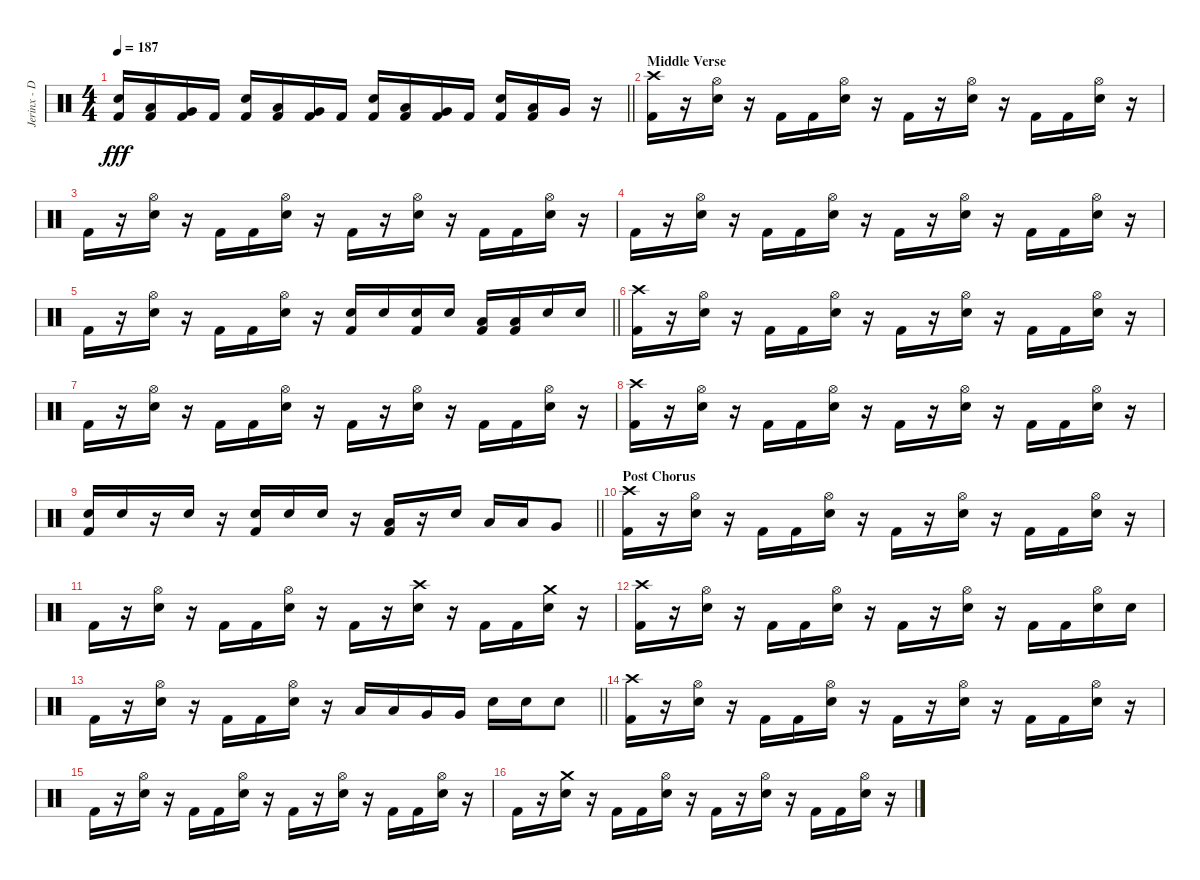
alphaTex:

\track ("Jerinx - Drum" "Jerinx - D") {instrument percussion}
\staff {score}
\articulation defaults
\ts (4 4)
\tempo 187
\clef neutral
\barLineRight lightlight
\ks c
("Snare (hit) 2" "Kick (hit) 2").16{dy fff} ("Kick (hit) 2" "Low Tom (hit)").16 ("Kick (hit) 2" "Very Low Tom (hit)").16 "Kick (hit) 2".16 ("Snare (hit) 2" "Kick (hit) 2").16 ("Kick (hit) 2" "Low Tom (hit)").16 ("Kick (hit) 2" "Very Low Tom (hit)").16 "Kick (hit) 2".16 ("Snare (hit) 2" "Kick (hit) 2").16 ("Kick (hit) 2" "Low Tom (hit)").16 ("Kick (hit) 2" "Very Low Tom (hit)").16 "Kick (hit) 2".16 ("Snare (hit) 2" "Kick (hit) 2").16 ("Kick (hit) 2" "Low Tom (hit)").16 "Very Low Tom (hit)".16 r.16 |
\section ("" "Middle Verse")
("Kick (hit) 2" "Crash high (hit)").16 r.16 ("Hi-Hat (open)" "Snare (hit) 2").16 r.16 "Kick (hit) 2".16 "Kick (hit) 2".16 ("Hi-Hat (open)" "Snare (hit) 2").16 r.16 "Kick (hit) 2".16 r.16 ("Hi-Hat (open)" "Snare (hit) 2").16 r.16 "Kick (hit) 2".16 "Kick (hit) 2".16 ("Hi-Hat (open)" "Snare (hit) 2").16 r.16 |
"Kick (hit) 2".16 r.16 ("Hi-Hat (open)" "Snare (hit) 2").16 r.16 "Kick (hit) 2".16 "Kick (hit) 2".16 ("Hi-Hat (open)" "Snare (hit) 2").16 r.16 "Kick (hit) 2".16 r.16 ("Hi-Hat (open)" "Snare (hit) 2").16 r.16 "Kick (hit) 2".16 "Kick (hit) 2".16 ("Hi-Hat (open)" "Snare (hit) 2").16 r.16 |
"Kick (hit) 2".16 r.16 ("Hi-Hat (open)" "Snare (hit) 2").16 r.16 "Kick (hit) 2".16 "Kick (hit) 2".16 ("Hi-Hat (open)" "Snare (hit) 2").16 r.16 "Kick (hit) 2".16 r.16 ("Hi-Hat (open)" "Snare (hit) 2").16 r.16 "Kick (hit) 2".16 "Kick (hit) 2".16 ("Hi-Hat (open)" "Snare (hit) 2").16 r.16 |
\barLineRight lightlight "Kick (hit) 2".16
r.16 ("Hi-Hat (open)" "Snare (hit) 2").16 r.16 "Kick (hit) 2".16 "Kick (hit) 2".16 ("Hi-Hat (open)" "Snare (hit) 2").16 r.16 ("Snare (hit) 2" "Kick (hit) 2").16 "Snare (hit) 2".16 ("Snare (hit) 2" "Kick (hit) 2").16 "Snare (hit) 2".16 ("Kick (hit) 2" "Low Tom (hit)").16 ("Kick (hit) 2" "Low Tom (hit)").16 "Snare (hit) 2".16 "Snare (hit) 2".16 |
("Kick (hit) 2" "Crash high (hit)").16 r.16 ("Hi-Hat (open)" "Snare (hit) 2").16 r.16 "Kick (hit) 2".16 "Kick (hit) 2".16 ("Hi-Hat (open)" "Snare (hit) 2").16 r.16 "Kick (hit) 2".16 r.16 ("Hi-Hat (open)" "Snare (hit) 2").16 r.16 "Kick (hit) 2".16 "Kick (hit) 2".16 ("Hi-Hat (open)" "Snare (hit) 2").16 r.16 |
"Kick (hit) 2".16 r.16 ("Hi-Hat (open)" "Snare (hit) 2").16 r.16 "Kick (hit) 2".16 "Kick (hit) 2".16 ("Hi-Hat (open)" "Snare (hit) 2").16 r.16 "Kick (hit) 2".16 r.16 ("Hi-Hat (open)" "Snare (hit) 2").16 r.16 "Kick (hit) 2".16 "Kick (hit) 2".16 ("Hi-Hat (open)" "Snare (hit) 2").16 r.16 |
("Kick (hit) 2" "Crash high (hit)").16 r.16 ("Hi-Hat (open)" "Snare (hit) 2").16 r.16 "Kick (hit) 2".16 "Kick (hit) 2".16 ("Hi-Hat (open)" "Snare (hit) 2").16 r.16 "Kick (hit) 2".16 r.16 ("Hi-Hat (open)" "Snare (hit) 2").16 r.16 "Kick (hit) 2".16 "Kick (hit) 2".16 ("Hi-Hat (open)" "Snare (hit) 2").16 r.16 |
\barLineRight lightlight
("Snare (hit) 2" "Kick (hit) 2").16 "Snare (hit) 2".16 r.16 "Snare (hit) 2".16 r.16 ("Snare (hit) 2" "Kick (hit) 2").16 "Snare (hit) 2".16 "Snare (hit) 2".16 r.16 ("Kick (hit) 2" "Low Tom (hit)").16 r.16 "Snare (hit) 2".16 "Low Tom (hit)".16 "Low Tom (hit)".16 "Very Low Tom (hit)".8 |
\section ("" "Post Chorus")
("Kick (hit) 2" "Crash high (hit)").16 r.16 ("Hi-Hat (open)" "Snare (hit) 2").16 r.16 "Kick (hit) 2".16 "Kick (hit) 2".16 ("Hi-Hat (open)" "Snare (hit) 2").16 r.16 "Kick (hit) 2".16 r.16 ("Hi-Hat (open)" "Snare (hit) 2").16 r.16 "Kick (hit) 2".16 "Kick (hit) 2".16 ("Hi-Hat (open)" "Snare (hit) 2").16 r.16 |
"Kick (hit) 2".16 r.16 ("Hi-Hat (open)" "Snare (hit) 2").16 r.16 "Kick (hit) 2".16 "Kick (hit) 2".16 ("Hi-Hat (open)" "Snare (hit) 2").16 r.16 "Kick (hit) 2".16 r.16 ("Snare (hit) 2" "Crash high (hit)").16 r.16 "Kick (hit) 2".16 "Kick (hit) 2".16 ("Snare (hit) 2" "Crash medium (hit)").16 r.16 |
("Kick (hit) 2" "Crash high (hit)").16 r.16 ("Hi-Hat (open)" "Snare (hit) 2").16 r.16 "Kick (hit) 2".16 "Kick (hit) 2".16 ("Hi-Hat (open)" "Snare (hit) 2").16 r.16 "Kick (hit) 2".16 r.16 ("Hi-Hat (open)" "Snare (hit) 2").16 r.16 "Kick (hit) 2".16 "Kick (hit) 2".16 ("Hi-Hat (open)" "Snare (hit) 2").16 "Snare (hit) 2".16 |
\barLineRight lightlight "Kick (hit) 2".16
r.16 ("Hi-Hat (open)" "Snare (hit) 2").16 r.16 "Kick (hit) 2".16 "Kick (hit) 2".16 ("Hi-Hat (open)" "Snare (hit) 2").16 r.16 "Low Tom (hit)".16 "Low Tom (hit)".16 "Very Low Tom (hit)".16 "Very Low Tom (hit)".16 "Snare (hit) 2".16 "Snare (hit) 2".16 "Snare (hit) 2".8 |
("Kick (hit) 2" "Crash high (hit)").16 r.16 ("Hi-Hat (open)" "Snare (hit) 2").16 r.16 "Kick (hit) 2".16 "Kick (hit) 2".16 ("Hi-Hat (open)" "Snare (hit) 2").16 r.16 "Kick (hit) 2".16 r.16 ("Hi-Hat (open)" "Snare (hit) 2").16 r.16 "Kick (hit) 2".16 "Kick (hit) 2".16 ("Hi-Hat (open)" "Snare (hit) 2").16 r.16 |
"Kick (hit) 2".16 r.16 ("Hi-Hat (open)" "Snare (hit) 2").16 r.16 "Kick (hit) 2".16 "Kick (hit) 2".16 ("Hi-Hat (open)" "Snare (hit) 2").16 r.16 "Kick (hit) 2".16 r.16 ("Hi-Hat (open)" "Snare (hit) 2").16 r.16 "Kick (hit) 2".16 "Kick (hit) 2".16 ("Hi-Hat (open)" "Snare (hit) 2").16 r.16 |
"Kick (hit) 2".16 r.16 ("Snare (hit) 2" "Crash medium (hit)").16 r.16 "Kick (hit) 2".16 "Kick (hit) 2".16 ("Hi-Hat (open)" "Snare (hit) 2").16 r.16 "Kick (hit) 2".16 r.16 ("Hi-Hat (open)" "Snare (hit) 2").16 r.16 "Kick (hit) 2".16 "Kick (hit) 2".16 ("Hi-Hat (open)" "Snare (hit) 2").16 r.16
